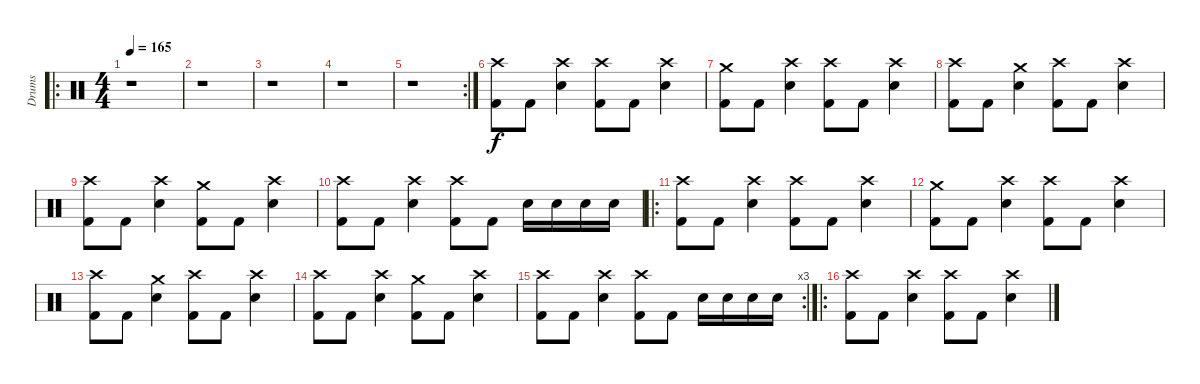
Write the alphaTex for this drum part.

\track ("Drums" "Drums") {instrument percussion}
\staff {score}
\articulation defaults
\ro
\ts (4 4)
\tempo 165
\clef neutral
\ks c
r.1{dy f} |
r.1 |
r.1 |
r.1 |
\rc 2
r.1 |
("Crash high (hit)" "Kick (hit) 2").8 "Kick (hit) 2".8 ("Crash high (hit)" "Electric Snare (hit)").4 ("Crash high (hit)" "Kick (hit) 2").8 "Kick (hit) 2".8 ("Crash high (hit)" "Electric Snare (hit)").4 |
("Crash medium (hit)" "Kick (hit) 2").8 "Kick (hit) 2".8 ("Crash high (hit)" "Electric Snare (hit)").4 ("Crash high (hit)" "Kick (hit) 2").8 "Kick (hit) 2".8 ("Crash high (hit)" "Electric Snare (hit)").4 |
("Crash high (hit)" "Kick (hit) 2").8 "Kick (hit) 2".8 ("Crash medium (hit)" "Electric Snare (hit)").4 ("Crash high (hit)" "Kick (hit) 2").8 "Kick (hit) 2".8 ("Crash high (hit)" "Electric Snare (hit)").4 |
("Crash high (hit)" "Kick (hit) 2").8 "Kick (hit) 2".8 ("Crash high (hit)" "Electric Snare (hit)").4 ("Crash medium (hit)" "Kick (hit) 2").8 "Kick (hit) 2".8 ("Crash high (hit)" "Electric Snare (hit)").4 |
("Crash high (hit)" "Kick (hit) 2").8 "Kick (hit) 2".8 ("Crash high (hit)" "Electric Snare (hit)").4 ("Crash high (hit)" "Kick (hit) 2").8 "Kick (hit) 2".8 "Electric Snare (hit)".16 "Electric Snare (hit)".16 "Electric Snare (hit)".16 "Electric Snare (hit)".16 |
\ro
("Crash high (hit)" "Kick (hit) 2").8 "Kick (hit) 2".8 ("Crash high (hit)" "Electric Snare (hit)").4 ("Crash high (hit)" "Kick (hit) 2").8 "Kick (hit) 2".8 ("Crash high (hit)" "Electric Snare (hit)").4 |
("Crash medium (hit)" "Kick (hit) 2").8 "Kick (hit) 2".8 ("Crash high (hit)" "Electric Snare (hit)").4 ("Crash high (hit)" "Kick (hit) 2").8 "Kick (hit) 2".8 ("Crash high (hit)" "Electric Snare (hit)").4 |
("Crash high (hit)" "Kick (hit) 2").8 "Kick (hit) 2".8 ("Crash medium (hit)" "Electric Snare (hit)").4 ("Crash high (hit)" "Kick (hit) 2").8 "Kick (hit) 2".8 ("Crash high (hit)" "Electric Snare (hit)").4 |
("Crash high (hit)" "Kick (hit) 2").8 "Kick (hit) 2".8 ("Crash high (hit)" "Electric Snare (hit)").4 ("Crash medium (hit)" "Kick (hit) 2").8 "Kick (hit) 2".8 ("Crash high (hit)" "Electric Snare (hit)").4 |
\rc 3
("Crash high (hit)" "Kick (hit) 2").8 "Kick (hit) 2".8 ("Crash high (hit)" "Electric Snare (hit)").4 ("Crash high (hit)" "Kick (hit) 2").8 "Kick (hit) 2".8 "Electric Snare (hit)".16 "Electric Snare (hit)".16 "Electric Snare (hit)".16 "Electric Snare (hit)".16 |
\ro
("Crash high (hit)" "Kick (hit) 2").8 "Kick (hit) 2".8 ("Crash high (hit)" "Electric Snare (hit)").4 ("Crash high (hit)" "Kick (hit) 2").8 "Kick (hit) 2".8 ("Crash high (hit)" "Electric Snare (hit)").4
